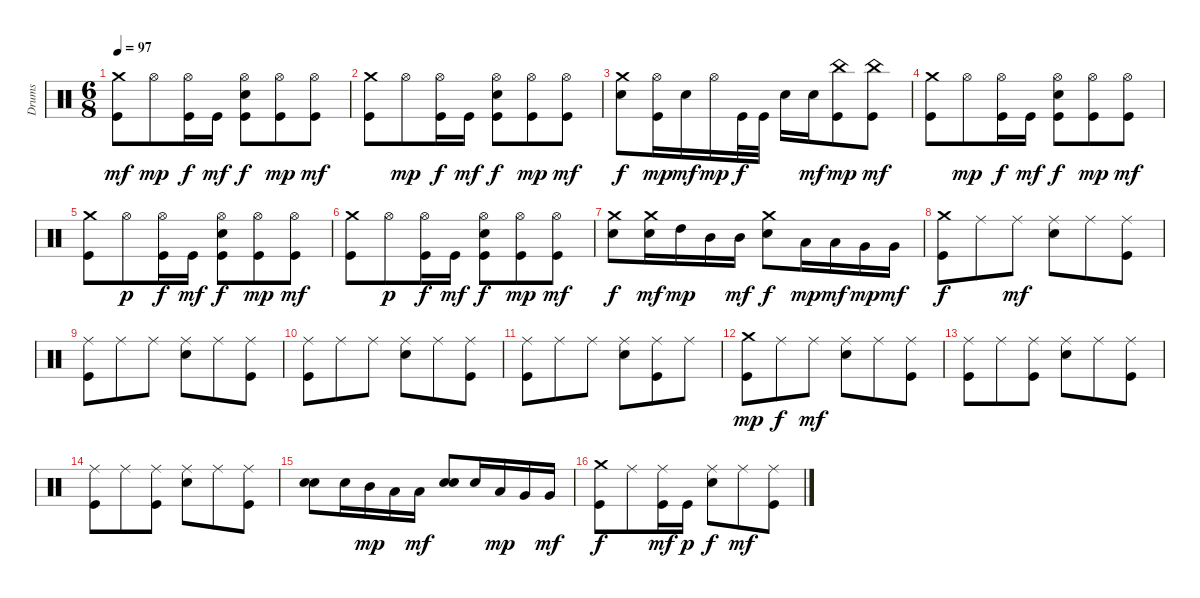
\track ("Drums" "Drums") {instrument percussion}
\staff {score}
\articulation defaults
\ts (6 8)
\tempo 97
\clef neutral
\ks c
("Crash medium (hit)" "Kick (hit)").8{dy mf} "Hi-Hat (open)".8{dy mp} ("Hi-Hat (open)" "Kick (hit)").16{dy f} "Kick (hit)".16{dy mf} ("Hi-Hat (open)" "Kick (hit)" "Snare (hit) 2").8{dy f} ("Hi-Hat (open)" "Kick (hit)").8{dy mp} ("Hi-Hat (open)" "Kick (hit)").8{dy mf} |
("Crash medium (hit)" "Kick (hit)").8 "Hi-Hat (open)".8{dy mp} ("Hi-Hat (open)" "Kick (hit)").16{dy f} "Kick (hit)".16{dy mf} ("Hi-Hat (open)" "Kick (hit)" "Snare (hit) 2").8{dy f} ("Hi-Hat (open)" "Kick (hit)").8{dy mp} ("Hi-Hat (open)" "Kick (hit)").8{dy mf} |
("Crash medium (hit)" "Snare (hit) 2").8{dy f} ("Hi-Hat (open)" "Kick (hit)").16{dy mp} "Snare (hit) 2".16{dy mf} "Hi-Hat (open)".16{dy mp} "Kick (hit)".32{dy f} "Kick (hit)".32 "Snare (hit) 2".16 "Snare (hit) 2".16{dy mf} ("China (hit)" "Kick (hit)").8{dy mp} ("China (hit)" "Kick (hit)").8{dy mf} |
("Crash medium (hit)" "Kick (hit)").8 "Hi-Hat (open)".8{dy mp} ("Hi-Hat (open)" "Kick (hit)").16{dy f} "Kick (hit)".16{dy mf} ("Hi-Hat (open)" "Kick (hit)" "Snare (hit) 2").8{dy f} ("Hi-Hat (open)" "Kick (hit)").8{dy mp} ("Hi-Hat (open)" "Kick (hit)").8{dy mf} |
("Crash medium (hit)" "Kick (hit)").8 "Hi-Hat (open)".8{dy p} ("Hi-Hat (open)" "Kick (hit)").16{dy f} "Kick (hit)".16{dy mf} ("Hi-Hat (open)" "Kick (hit)" "Snare (hit) 2").8{dy f} ("Hi-Hat (open)" "Kick (hit)").8{dy mp} ("Hi-Hat (open)" "Kick (hit)").8{dy mf} |
("Crash medium (hit)" "Kick (hit)").8 "Hi-Hat (open)".8{dy p} ("Hi-Hat (open)" "Kick (hit)").16{dy f} "Kick (hit)".16{dy mf} ("Hi-Hat (open)" "Kick (hit)" "Snare (hit) 2").8{dy f} ("Hi-Hat (open)" "Kick (hit)").8{dy mp} ("Hi-Hat (open)" "Kick (hit)").8{dy mf} |
("Crash medium (hit)" "Snare (hit) 2").8{dy f} ("Crash medium (hit)" "Snare (hit) 2").16{dy mf} "High Tom (hit)".16{dy mp} "Mid Tom (hit)".16 "Mid Tom (hit)".16{dy mf} ("Crash medium (hit)" "Snare (hit) 2").8{dy f} "Low Tom (hit)".16{dy mp} "Low Tom (hit)".16{dy mf} "Very Low Tom (hit)".16{dy mp} "Very Low Tom (hit)".16{dy mf} |
("Crash medium (hit)" "Kick (hit)").8{dy f} "Ride (middle)".8 "Ride (middle)".8{dy mf} ("Snare (hit) 2" "Ride (middle)").8 "Ride (middle)".8 ("Kick (hit)" "Ride (middle)").8 |
("Kick (hit)" "Ride (middle)").8 "Ride (middle)".8 "Ride (middle)".8 ("Snare (hit) 2" "Ride (middle)").8 "Ride (middle)".8 ("Kick (hit)" "Ride (middle)").8 |
("Kick (hit)" "Ride (middle)").8 "Ride (middle)".8 "Ride (middle)".8 ("Snare (hit) 2" "Ride (middle)").8 "Ride (middle)".8 ("Kick (hit)" "Ride (middle)").8 |
("Kick (hit)" "Ride (middle)").8 "Ride (middle)".8 "Ride (middle)".8 ("Snare (hit) 2" "Ride (middle)").8 ("Kick (hit)" "Ride (middle)").8 "Ride (middle)".8 |
("Crash medium (hit)" "Kick (hit)").8{dy mp} "Ride (middle)".8{dy f} "Ride (middle)".8{dy mf} ("Snare (hit) 2" "Ride (middle)").8 "Ride (middle)".8 ("Kick (hit)" "Ride (middle)").8 |
("Kick (hit)" "Ride (middle)").8 "Ride (middle)".8 ("Kick (hit)" "Ride (middle)").8 ("Snare (hit) 2" "Ride (middle)").8 "Ride (middle)".8 ("Kick (hit)" "Ride (middle)").8 |
("Kick (hit)" "Ride (middle)").8 "Ride (middle)".8 ("Kick (hit)" "Ride (middle)").8 ("Snare (hit) 2" "Ride (middle)").8 "Ride (middle)".8 ("Kick (hit)" "Ride (middle)").8 |
("Snare (hit) 2" "Snare (hit) 2").8 "Snare (hit) 2".16 "Mid Tom (hit)".16{dy mp} "Low Tom (hit)".16 "Low Tom (hit)".16{dy mf} ("Snare (hit) 2" "Snare (hit) 2").8 "Snare (hit) 2".16 "Low Tom (hit)".16{dy mp} "Very Low Tom (hit)".16 "Very Low Tom (hit)".16{dy mf} |
("Crash medium (hit)" "Kick (hit)").8{dy f} "Ride (middle)".8 ("Kick (hit)" "Ride (middle)").16{dy mf} "Kick (hit)".16{dy p} ("Snare (hit) 2" "Ride (middle)").8{dy f} "Ride (middle)".8{dy mf} ("Kick (hit)" "Ride (middle)").8
